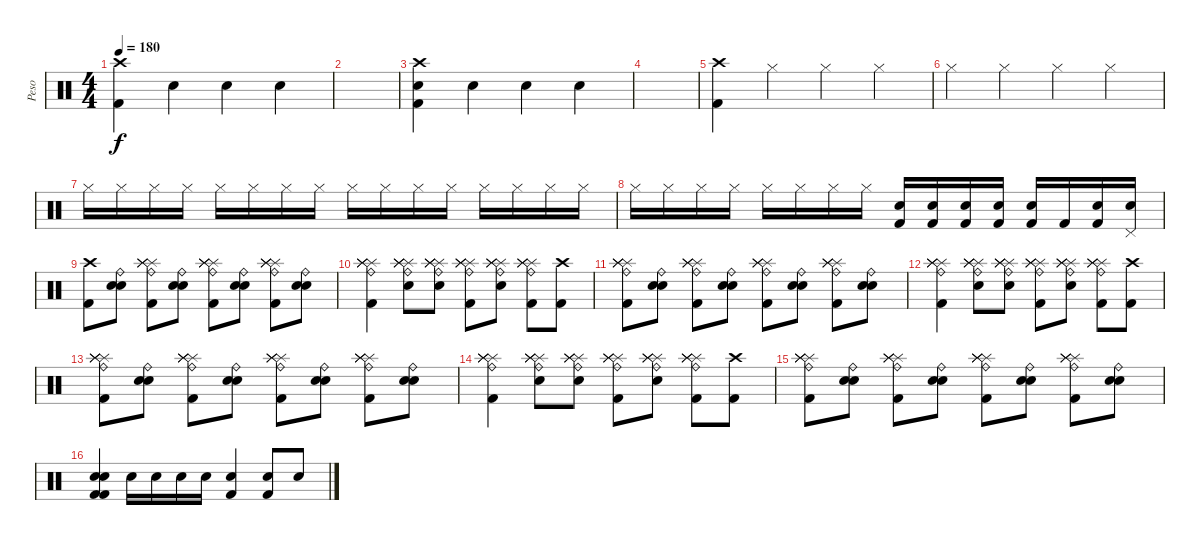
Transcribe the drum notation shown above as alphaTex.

\track ("Peso" "Peso") {instrument percussion}
\staff {score}
\articulation defaults
\ts (4 4)
\tempo 180
\clef neutral
\ks c
("Crash high (hit)"{x} "Kick (hit) 2"{x}).4{dy f} "Snare (hit)"{x}.4 "Snare (hit)"{x}.4 "Snare (hit)"{x}.4 |
|
("Crash high (hit)"{x} "Snare (hit)"{x} "Kick (hit) 2"{x}).4 "Snare (hit)"{x}.4 "Snare (hit)"{x}.4 "Snare (hit)"{x}.4 |
|
("Crash high (hit)"{x} "Kick (hit) 2"{x}).4 "Hi-Hat (closed)".4 "Hi-Hat (closed)".4 "Hi-Hat (closed)".4 |
"Hi-Hat (closed)".4 "Hi-Hat (closed)".4 "Hi-Hat (closed)".4 "Hi-Hat (closed)".4 |
"Hi-Hat (closed)".16 "Hi-Hat (closed)".16 "Hi-Hat (closed)".16 "Hi-Hat (closed)".16 "Hi-Hat (closed)".16 "Hi-Hat (closed)".16 "Hi-Hat (closed)".16 "Hi-Hat (closed)".16 "Hi-Hat (closed)".16 "Hi-Hat (closed)".16 "Hi-Hat (closed)".16 "Hi-Hat (closed)".16 "Hi-Hat (closed)".16 "Hi-Hat (closed)".16 "Hi-Hat (closed)".16 "Hi-Hat (closed)".16 |
"Hi-Hat (closed)".16 "Hi-Hat (closed)".16 "Hi-Hat (closed)".16 "Hi-Hat (closed)".16 "Hi-Hat (closed)".16 "Hi-Hat (closed)".16 "Hi-Hat (closed)".16 "Hi-Hat (closed)".16 ("Snare (hit) 2" "Kick (hit) 2").16 ("Snare (hit) 2" "Kick (hit) 2").16 ("Snare (hit) 2" "Kick (hit) 2").16 ("Snare (hit) 2" "Kick (hit) 2").16 ("Snare (hit) 2" "Kick (hit) 2").16 "Kick (hit) 2".16 ("Snare (hit) 2" "Kick (hit) 2").16 ("Pedal Hi-Hat (hit)" "Snare (hit) 2").16 |
("Crash high (hit)" "Kick (hit) 2").8 ("Ride (bell)" "Snare (hit)"{x} "Snare (hit) 2").8 ("Splash (hit)" "Ride (bell)" "Splash (hit)" "Splash (hit)" "Splash (hit)" "Kick (hit) 2").8 ("Ride (bell)" "Snare (hit)"{x} "Snare (hit) 2").8 ("Splash (hit)" "Ride (bell)" "Splash (hit)" "Splash (hit)" "Splash (hit)" "Kick (hit) 2").8 ("Ride (bell)" "Snare (hit)"{x} "Snare (hit) 2").8 ("Splash (hit)" "Ride (bell)" "Splash (hit)" "Splash (hit)" "Splash (hit)" "Kick (hit) 2").8 ("Ride (bell)" "Snare (hit)"{x} "Snare (hit) 2").8 |
("Splash (hit)" "Ride (bell)" "Splash (hit)" "Splash (hit)" "Splash (hit)" "Kick (hit) 2").4 ("Splash (hit)" "Ride (bell)" "Snare (hit) 2" "Splash (hit)" "Splash (hit)" "Splash (hit)").8 ("Splash (hit)" "Ride (bell)" "Snare (hit) 2" "Splash (hit)" "Splash (hit)" "Splash (hit)").8 ("Splash (hit)" "Ride (bell)" "Splash (hit)" "Splash (hit)" "Splash (hit)" "Kick (hit) 2").8 ("Splash (hit)" "Ride (bell)" "Snare (hit) 2" "Splash (hit)" "Splash (hit)" "Splash (hit)").8 ("Splash (hit)" "Ride (bell)" "Splash (hit)" "Splash (hit)" "Splash (hit)" "Kick (hit) 2").8 ("Crash high (hit)" "Kick (hit) 2").8 |
("Splash (hit)" "Ride (bell)" "Splash (hit)" "Splash (hit)" "Splash (hit)" "Kick (hit) 2").8 ("Ride (bell)" "Snare (hit)"{x} "Snare (hit) 2").8 ("Splash (hit)" "Ride (bell)" "Splash (hit)" "Splash (hit)" "Splash (hit)" "Kick (hit) 2").8 ("Ride (bell)" "Snare (hit)"{x} "Snare (hit) 2").8 ("Splash (hit)" "Ride (bell)" "Splash (hit)" "Splash (hit)" "Splash (hit)" "Kick (hit) 2").8 ("Ride (bell)" "Snare (hit)"{x} "Snare (hit) 2").8 ("Splash (hit)" "Ride (bell)" "Splash (hit)" "Splash (hit)" "Splash (hit)" "Kick (hit) 2").8 ("Ride (bell)" "Snare (hit)"{x} "Snare (hit) 2").8 |
("Splash (hit)" "Ride (bell)" "Splash (hit)" "Splash (hit)" "Splash (hit)" "Kick (hit) 2").4 ("Splash (hit)" "Ride (bell)" "Snare (hit) 2" "Splash (hit)" "Splash (hit)" "Splash (hit)").8 ("Splash (hit)" "Ride (bell)" "Snare (hit) 2" "Splash (hit)" "Splash (hit)" "Splash (hit)").8 ("Splash (hit)" "Ride (bell)" "Splash (hit)" "Splash (hit)" "Splash (hit)" "Kick (hit) 2").8 ("Splash (hit)" "Ride (bell)" "Snare (hit) 2" "Splash (hit)" "Splash (hit)" "Splash (hit)").8 ("Splash (hit)" "Ride (bell)" "Splash (hit)" "Splash (hit)" "Splash (hit)" "Kick (hit) 2").8 ("Crash high (hit)" "Kick (hit) 2").8 |
("Splash (hit)" "Ride (bell)" "Splash (hit)" "Splash (hit)" "Splash (hit)" "Kick (hit) 2").8 ("Ride (bell)" "Snare (hit)"{x} "Snare (hit) 2").8 ("Splash (hit)" "Ride (bell)" "Splash (hit)" "Splash (hit)" "Splash (hit)" "Kick (hit) 2").8 ("Ride (bell)" "Snare (hit)"{x} "Snare (hit) 2").8 ("Splash (hit)" "Ride (bell)" "Splash (hit)" "Splash (hit)" "Splash (hit)" "Kick (hit) 2").8 ("Ride (bell)" "Snare (hit)"{x} "Snare (hit) 2").8 ("Splash (hit)" "Ride (bell)" "Splash (hit)" "Splash (hit)" "Splash (hit)" "Kick (hit) 2").8 ("Ride (bell)" "Snare (hit)"{x} "Snare (hit) 2").8 |
("Splash (hit)" "Ride (bell)" "Splash (hit)" "Splash (hit)" "Splash (hit)" "Kick (hit) 2").4 ("Splash (hit)" "Ride (bell)" "Snare (hit) 2" "Splash (hit)" "Splash (hit)" "Splash (hit)").8 ("Splash (hit)" "Ride (bell)" "Snare (hit) 2" "Splash (hit)" "Splash (hit)" "Splash (hit)").8 ("Splash (hit)" "Ride (bell)" "Splash (hit)" "Splash (hit)" "Splash (hit)" "Kick (hit) 2").8 ("Splash (hit)" "Ride (bell)" "Snare (hit) 2" "Splash (hit)" "Splash (hit)" "Splash (hit)").8 ("Splash (hit)" "Ride (bell)" "Splash (hit)" "Splash (hit)" "Splash (hit)" "Kick (hit) 2").8 ("Crash high (hit)" "Kick (hit) 2").8 |
("Splash (hit)" "Ride (bell)" "Splash (hit)" "Splash (hit)" "Splash (hit)" "Kick (hit) 2").8 ("Ride (bell)" "Snare (hit)"{x} "Snare (hit) 2").8 ("Splash (hit)" "Ride (bell)" "Splash (hit)" "Splash (hit)" "Splash (hit)" "Kick (hit) 2").8 ("Ride (bell)" "Snare (hit)"{x} "Snare (hit) 2").8 ("Splash (hit)" "Ride (bell)" "Splash (hit)" "Splash (hit)" "Splash (hit)" "Kick (hit) 2").8 ("Ride (bell)" "Snare (hit)"{x} "Snare (hit) 2").8 ("Splash (hit)" "Ride (bell)" "Splash (hit)" "Splash (hit)" "Splash (hit)" "Kick (hit) 2").8 ("Ride (bell)" "Snare (hit)"{x} "Snare (hit) 2").8 |
("Snare (hit) 2" "Snare (hit) 2" "Kick (hit) 2" "Kick (hit) 2").4 "Snare (hit) 2".16 "Snare (hit) 2".16 "Snare (hit) 2".16 "Snare (hit) 2".16 ("Snare (hit) 2" "Kick (hit) 2").4 ("Snare (hit) 2" "Kick (hit) 2").8 "Snare (hit) 2".8
